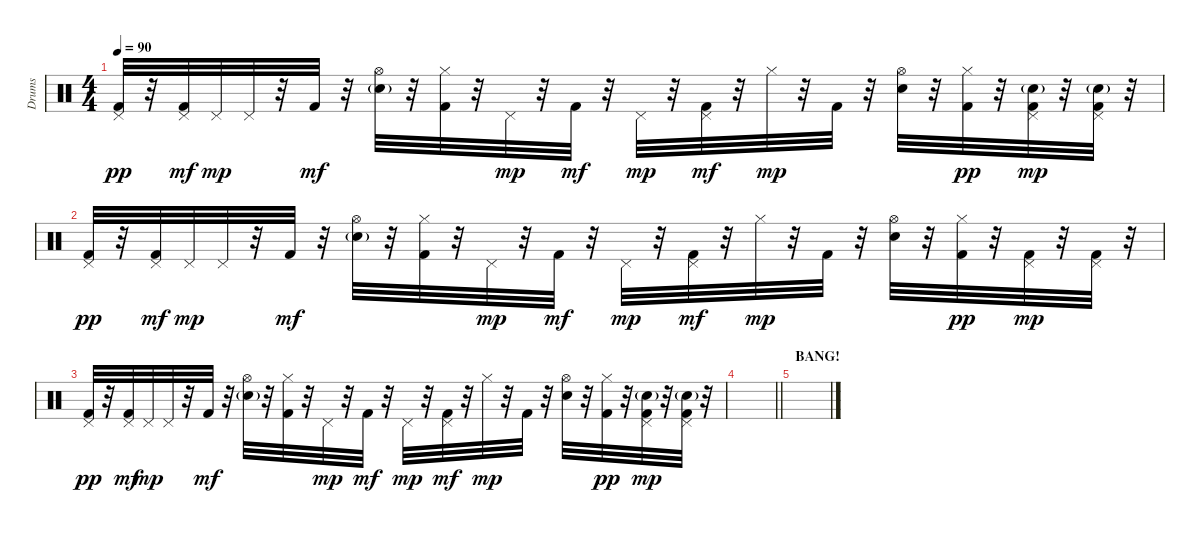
\track ("Drums" "Drums") {instrument percussion}
\staff {score}
\articulation defaults
\ts (4 4)
\tempo 90
\clef neutral
\ks c
("Pedal Hi-Hat (hit)" "Kick (hit) 2").32{dy pp} r.32 ("Pedal Hi-Hat (hit)" "Kick (hit) 2").32{dy mf} "Pedal Hi-Hat (hit)".32{dy mp} "Pedal Hi-Hat (hit)".32 r.32 "Kick (hit) 2".32{dy mf} r.32 ("Hi-Hat (open)" "Snare (hit) 2"{g}).32 r.32 ("Hi-Hat (closed)" "Kick (hit) 2").32 r.32 "Pedal Hi-Hat (hit)".32{dy mp} r.32 "Kick (hit) 2".32{dy mf} r.32 "Pedal Hi-Hat (hit)".32{dy mp} r.32 ("Pedal Hi-Hat (hit)" "Kick (hit) 2").32{dy mf} r.32 "Hi-Hat (closed)".32{dy mp} r.32 "Kick (hit) 2".32 r.32 ("Hi-Hat (open)" "Snare (hit) 2").32 r.32 ("Hi-Hat (closed)" "Kick (hit) 2").32{dy pp} r.32 ("Pedal Hi-Hat (hit)" "Snare (hit) 2"{g} "Kick (hit) 2").32{dy mp} r.32 ("Pedal Hi-Hat (hit)" "Snare (hit) 2"{g} "Kick (hit) 2").32 r.32 |
("Pedal Hi-Hat (hit)" "Kick (hit) 2").32{dy pp} r.32 ("Pedal Hi-Hat (hit)" "Kick (hit) 2").32{dy mf} "Pedal Hi-Hat (hit)".32{dy mp} "Pedal Hi-Hat (hit)".32 r.32 "Kick (hit) 2".32{dy mf} r.32 ("Hi-Hat (open)" "Snare (hit) 2"{g}).32 r.32 ("Hi-Hat (closed)" "Kick (hit) 2").32 r.32 "Pedal Hi-Hat (hit)".32{dy mp} r.32 "Kick (hit) 2".32{dy mf} r.32 "Pedal Hi-Hat (hit)".32{dy mp} r.32 ("Pedal Hi-Hat (hit)" "Kick (hit) 2").32{dy mf} r.32 "Hi-Hat (closed)".32{dy mp} r.32 "Kick (hit) 2".32 r.32 ("Hi-Hat (open)" "Snare (hit) 2").32 r.32 ("Hi-Hat (closed)" "Kick (hit) 2").32{dy pp} r.32 ("Pedal Hi-Hat (hit)" "Kick (hit) 2").32{dy mp} r.32 ("Pedal Hi-Hat (hit)" "Kick (hit) 2").32 r.32 |
("Pedal Hi-Hat (hit)" "Kick (hit) 2").32{dy pp} r.32 ("Pedal Hi-Hat (hit)" "Kick (hit) 2").32{dy mf} "Pedal Hi-Hat (hit)".32{dy mp} "Pedal Hi-Hat (hit)".32 r.32 "Kick (hit) 2".32{dy mf} r.32 ("Hi-Hat (open)" "Snare (hit) 2"{g}).32 r.32 ("Hi-Hat (closed)" "Kick (hit) 2").32 r.32 "Pedal Hi-Hat (hit)".32{dy mp} r.32 "Kick (hit) 2".32{dy mf} r.32 "Pedal Hi-Hat (hit)".32{dy mp} r.32 ("Pedal Hi-Hat (hit)" "Kick (hit) 2").32{dy mf} r.32 "Hi-Hat (closed)".32{dy mp} r.32 "Kick (hit) 2".32 r.32 ("Hi-Hat (open)" "Snare (hit) 2").32 r.32 ("Hi-Hat (closed)" "Kick (hit) 2").32{dy pp} r.32 ("Pedal Hi-Hat (hit)" "Snare (hit) 2"{g} "Kick (hit) 2").32{dy mp} r.32 ("Pedal Hi-Hat (hit)" "Snare (hit) 2"{g} "Kick (hit) 2").32 r.32 |
\barLineRight lightlight
|
\section ("" "BANG!")
